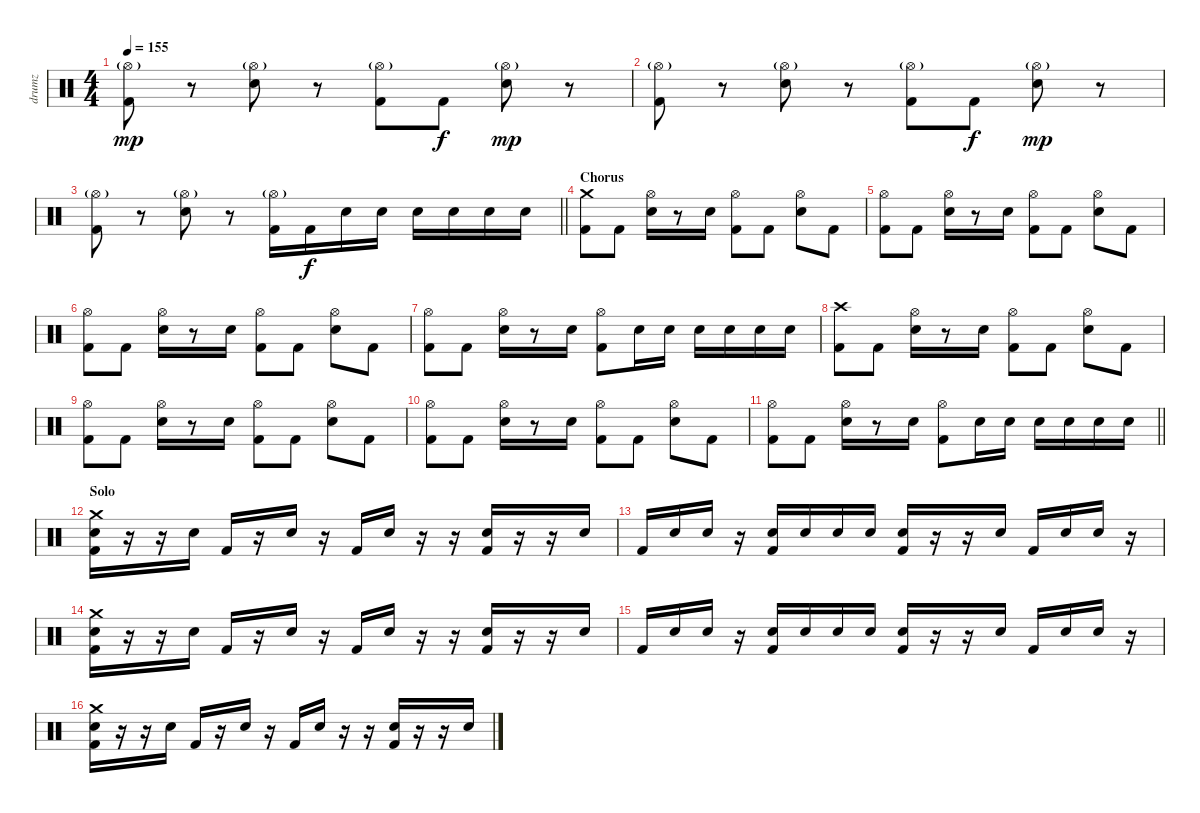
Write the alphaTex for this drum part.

\track ("drumz" "drumz") {instrument percussion}
\staff {score}
\articulation defaults
\ts (4 4)
\tempo 155
\clef neutral
\ks c
("Hi-Hat (open)"{g} "Kick (hit) 2").8{dy mp} r.8 ("Hi-Hat (open)"{g} "Electric Snare (hit)").8 r.8 ("Hi-Hat (open)"{g} "Kick (hit) 2").8 "Kick (hit) 2".8{dy f} ("Hi-Hat (open)"{g} "Electric Snare (hit)").8{dy mp} r.8 |
("Hi-Hat (open)"{g} "Kick (hit) 2").8 r.8 ("Hi-Hat (open)"{g} "Electric Snare (hit)").8 r.8 ("Hi-Hat (open)"{g} "Kick (hit) 2").8 "Kick (hit) 2".8{dy f} ("Hi-Hat (open)"{g} "Electric Snare (hit)").8{dy mp} r.8 |
\barLineRight lightlight
("Hi-Hat (open)"{g} "Kick (hit) 2").8 r.8 ("Hi-Hat (open)"{g} "Electric Snare (hit)").8 r.8 ("Hi-Hat (open)"{g} "Kick (hit) 2").16 "Kick (hit) 2".16{dy f} "Electric Snare (hit)".16 "Electric Snare (hit)".16 "Electric Snare (hit)".16 "Electric Snare (hit)".16 "Electric Snare (hit)".16 "Electric Snare (hit)".16 |
\section ("" "Chorus")
("Crash medium (hit)" "Kick (hit) 2").8 "Kick (hit) 2".8 ("Hi-Hat (open)" "Electric Snare (hit)").16 r.8 "Electric Snare (hit)".16 ("Hi-Hat (open)" "Kick (hit) 2").8 "Kick (hit) 2".8 ("Hi-Hat (open)" "Electric Snare (hit)").8 "Kick (hit) 2".8 |
("Hi-Hat (open)" "Kick (hit) 2").8 "Kick (hit) 2".8 ("Hi-Hat (open)" "Electric Snare (hit)").16 r.8 "Electric Snare (hit)".16 ("Hi-Hat (open)" "Kick (hit) 2").8 "Kick (hit) 2".8 ("Hi-Hat (open)" "Electric Snare (hit)").8 "Kick (hit) 2".8 |
("Hi-Hat (open)" "Kick (hit) 2").8 "Kick (hit) 2".8 ("Hi-Hat (open)" "Electric Snare (hit)").16 r.8 "Electric Snare (hit)".16 ("Hi-Hat (open)" "Kick (hit) 2").8 "Kick (hit) 2".8 ("Hi-Hat (open)" "Electric Snare (hit)").8 "Kick (hit) 2".8 |
("Hi-Hat (open)" "Kick (hit) 2").8 "Kick (hit) 2".8 ("Hi-Hat (open)" "Electric Snare (hit)").16 r.8 "Electric Snare (hit)".16 ("Hi-Hat (open)" "Kick (hit) 2").8 "Electric Snare (hit)".16 "Electric Snare (hit)".16 "Electric Snare (hit)".16 "Electric Snare (hit)".16 "Electric Snare (hit)".16 "Electric Snare (hit)".16 |
("Crash high (hit)" "Kick (hit) 2").8 "Kick (hit) 2".8 ("Hi-Hat (open)" "Electric Snare (hit)").16 r.8 "Electric Snare (hit)".16 ("Hi-Hat (open)" "Kick (hit) 2").8 "Kick (hit) 2".8 ("Hi-Hat (open)" "Electric Snare (hit)").8 "Kick (hit) 2".8 |
("Hi-Hat (open)" "Kick (hit) 2").8 "Kick (hit) 2".8 ("Hi-Hat (open)" "Electric Snare (hit)").16 r.8 "Electric Snare (hit)".16 ("Hi-Hat (open)" "Kick (hit) 2").8 "Kick (hit) 2".8 ("Hi-Hat (open)" "Electric Snare (hit)").8 "Kick (hit) 2".8 |
("Hi-Hat (open)" "Kick (hit) 2").8 "Kick (hit) 2".8 ("Hi-Hat (open)" "Electric Snare (hit)").16 r.8 "Electric Snare (hit)".16 ("Hi-Hat (open)" "Kick (hit) 2").8 "Kick (hit) 2".8 ("Hi-Hat (open)" "Electric Snare (hit)").8 "Kick (hit) 2".8 |
\barLineRight lightlight
("Hi-Hat (open)" "Kick (hit) 2").8 "Kick (hit) 2".8 ("Hi-Hat (open)" "Electric Snare (hit)").16 r.8 "Electric Snare (hit)".16 ("Hi-Hat (open)" "Kick (hit) 2").8 "Electric Snare (hit)".16 "Electric Snare (hit)".16 "Electric Snare (hit)".16 "Electric Snare (hit)".16 "Electric Snare (hit)".16 "Electric Snare (hit)".16 |
\section ("" "Solo")
("Crash medium (hit)" "Electric Snare (hit)" "Kick (hit) 2").16 r.16 r.16 "Electric Snare (hit)".16 "Kick (hit) 2".16 r.16 "Electric Snare (hit)".16 r.16 "Kick (hit) 2".16 "Electric Snare (hit)".16 r.16 r.16 ("Electric Snare (hit)" "Kick (hit) 2").16 r.16 r.16 "Electric Snare (hit)".16 |
"Kick (hit) 2".16 "Electric Snare (hit)".16 "Electric Snare (hit)".16 r.16 ("Electric Snare (hit)" "Kick (hit) 2").16 "Electric Snare (hit)".16 "Electric Snare (hit)".16 "Electric Snare (hit)".16 ("Electric Snare (hit)" "Kick (hit) 2").16 r.16 r.16 "Electric Snare (hit)".16 "Kick (hit) 2".16 "Electric Snare (hit)".16 "Electric Snare (hit)".16 r.16 |
("Crash medium (hit)" "Electric Snare (hit)" "Kick (hit) 2").16 r.16 r.16 "Electric Snare (hit)".16 "Kick (hit) 2".16 r.16 "Electric Snare (hit)".16 r.16 "Kick (hit) 2".16 "Electric Snare (hit)".16 r.16 r.16 ("Electric Snare (hit)" "Kick (hit) 2").16 r.16 r.16 "Electric Snare (hit)".16 |
"Kick (hit) 2".16 "Electric Snare (hit)".16 "Electric Snare (hit)".16 r.16 ("Electric Snare (hit)" "Kick (hit) 2").16 "Electric Snare (hit)".16 "Electric Snare (hit)".16 "Electric Snare (hit)".16 ("Electric Snare (hit)" "Kick (hit) 2").16 r.16 r.16 "Electric Snare (hit)".16 "Kick (hit) 2".16 "Electric Snare (hit)".16 "Electric Snare (hit)".16 r.16 |
("Crash medium (hit)" "Electric Snare (hit)" "Kick (hit) 2").16 r.16 r.16 "Electric Snare (hit)".16 "Kick (hit) 2".16 r.16 "Electric Snare (hit)".16 r.16 "Kick (hit) 2".16 "Electric Snare (hit)".16 r.16 r.16 ("Electric Snare (hit)" "Kick (hit) 2").16 r.16 r.16 "Electric Snare (hit)".16
